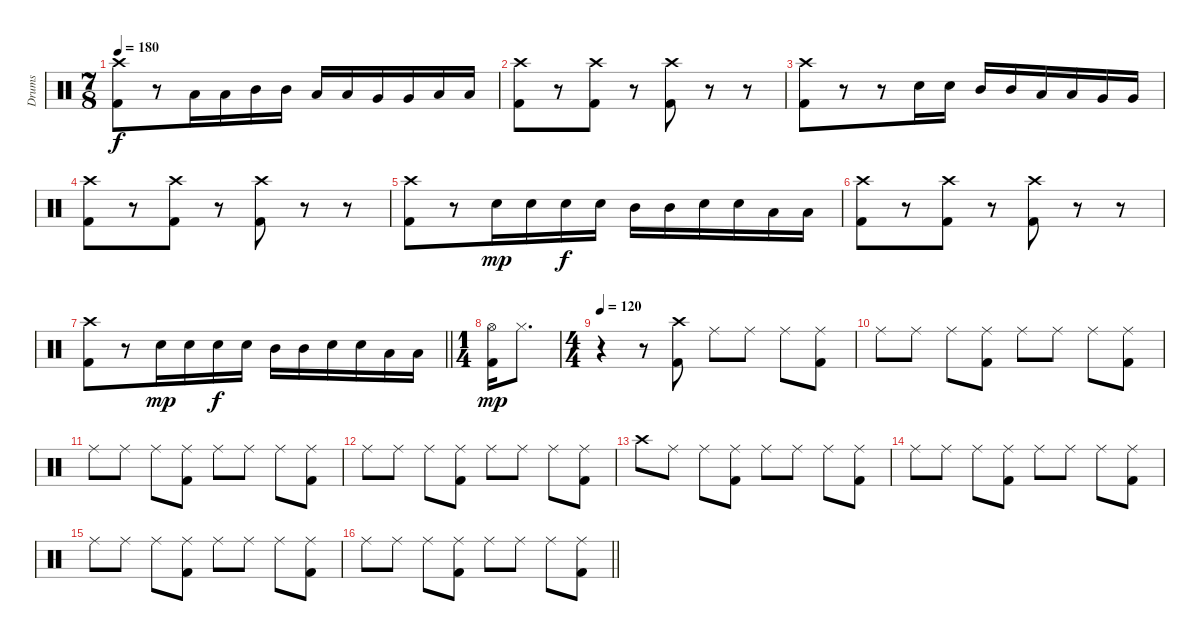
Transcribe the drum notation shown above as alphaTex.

\track ("Drums" "Drums") {instrument percussion}
\staff {score}
\articulation defaults
\ts (7 8)
\tempo 180
\clef neutral
\ks c
("Crash high (hit)" "Kick (hit) 2").8{dy f} r.8 "Low Tom (hit)".16 "Low Tom (hit)".16 "Mid Tom (hit)".16 "Mid Tom (hit)".16 "Low Tom (hit)".16 "Low Tom (hit)".16 "Very Low Tom (hit)".16 "Very Low Tom (hit)".16 "Low Floor Tom (hit)".16 "Low Floor Tom (hit)".16 |
("Crash high (hit)" "Kick (hit) 2").8 r.8 ("Crash high (hit)" "Kick (hit) 2").8 r.8 ("Crash high (hit)" "Kick (hit) 2").8 r.8 r.8 |
("Crash high (hit)" "Kick (hit) 2").8 r.8 r.8 "Snare (hit) 2".16 "Snare (hit) 2".16 "Mid Tom (hit)".16 "Mid Tom (hit)".16 "Low Tom (hit)".16 "Low Tom (hit)".16 "Very Low Tom (hit)".16 "Very Low Tom (hit)".16 |
("Crash high (hit)" "Kick (hit) 2").8 r.8 ("Crash high (hit)" "Kick (hit) 2").8 r.8 ("Crash high (hit)" "Kick (hit) 2").8 r.8 r.8 |
("Crash high (hit)" "Kick (hit) 2").8 r.8 "Snare (hit) 2".16{dy mp} "Snare (hit) 2".16 "Snare (hit) 2".16{dy f} "Snare (hit) 2".16 "Mid Tom (hit)".16 "Mid Tom (hit)".16 "Snare (hit) 2".16 "Snare (hit) 2".16 "Low Tom (hit)".16 "Low Tom (hit)".16 |
("Crash high (hit)" "Kick (hit) 2").8 r.8 ("Crash high (hit)" "Kick (hit) 2").8 r.8 ("Crash high (hit)" "Kick (hit) 2").8 r.8 r.8 |
\barLineRight lightlight
("Crash high (hit)" "Kick (hit) 2").8 r.8 "Snare (hit) 2".16{dy mp} "Snare (hit) 2".16 "Snare (hit) 2".16{dy f} "Snare (hit) 2".16 "Mid Tom (hit)".16 "Mid Tom (hit)".16 "Snare (hit) 2".16 "Snare (hit) 2".16 "Low Tom (hit)".16 "Low Tom (hit)".16 |
\ts (1 4)
("Hi-Hat (open)" "Kick (hit) 2").16{dy mp} "Hi-Hat (closed)".8{d} |
\ts (4 4)
\tempo 120
r.4 r.8 ("Crash high (hit)" "Kick (hit) 2").8 "Ride (middle)".8 "Ride (middle)".8 "Ride (middle)".8 ("Ride (middle)" "Kick (hit) 2").8 |
"Ride (middle)".8 "Ride (middle)".8 "Ride (middle)".8 ("Ride (middle)" "Kick (hit) 2").8 "Ride (middle)".8 "Ride (middle)".8 "Ride (middle)".8 ("Ride (middle)" "Kick (hit) 2").8 |
"Ride (middle)".8 "Ride (middle)".8 "Ride (middle)".8 ("Ride (middle)" "Kick (hit) 2").8 "Ride (middle)".8 "Ride (middle)".8 "Ride (middle)".8 ("Ride (middle)" "Kick (hit) 2").8 |
"Ride (middle)".8 "Ride (middle)".8 "Ride (middle)".8 ("Ride (middle)" "Kick (hit) 2").8 "Ride (middle)".8 "Ride (middle)".8 "Ride (middle)".8 ("Ride (middle)" "Kick (hit) 2").8 |
"Crash high (hit)".8 "Ride (middle)".8 "Ride (middle)".8 ("Ride (middle)" "Kick (hit) 2").8 "Ride (middle)".8 "Ride (middle)".8 "Ride (middle)".8 ("Ride (middle)" "Kick (hit) 2").8 |
"Ride (middle)".8 "Ride (middle)".8 "Ride (middle)".8 ("Ride (middle)" "Kick (hit) 2").8 "Ride (middle)".8 "Ride (middle)".8 "Ride (middle)".8 ("Ride (middle)" "Kick (hit) 2").8 |
"Ride (middle)".8 "Ride (middle)".8 "Ride (middle)".8 ("Ride (middle)" "Kick (hit) 2").8 "Ride (middle)".8 "Ride (middle)".8 "Ride (middle)".8 ("Ride (middle)" "Kick (hit) 2").8 |
\barLineRight lightlight "Ride (middle)".8 "Ride (middle)".8 "Ride (middle)".8
("Ride (middle)" "Kick (hit) 2").8 "Ride (middle)".8 "Ride (middle)".8 "Ride (middle)".8 ("Ride (middle)" "Kick (hit) 2").8
